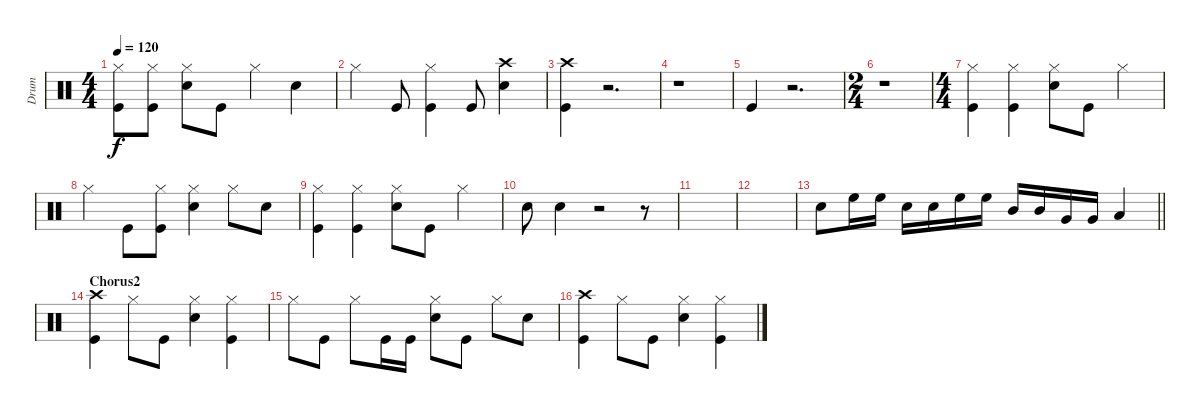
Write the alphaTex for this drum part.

\track ("Drum" "Drum") {instrument percussion}
\staff {score}
\articulation defaults
\ts (4 4)
\tempo 120
\clef neutral
\ks c
("Hi-Hat (closed)" "Kick (hit)").8{dy f} ("Hi-Hat (closed)" "Kick (hit)").8 ("Hi-Hat (closed)" "Snare (hit) 2").8 "Kick (hit)".8 "Hi-Hat (closed)".4 "Snare (hit) 2".4 |
"Hi-Hat (closed)".4 "Kick (hit)".8 ("Hi-Hat (closed)" "Kick (hit)").4 "Kick (hit)".8 ("Crash high (hit)" "Snare (hit) 2").4 |
("Crash high (hit)" "Kick (hit)").4 r.2{d} |
r.1 |
"Kick (hit)".4 r.2{d} |
\ts (2 4)
r.1 |
\ts (4 4)
("Hi-Hat (closed)" "Kick (hit)").4 ("Hi-Hat (closed)" "Kick (hit)").4 ("Hi-Hat (closed)" "Snare (hit) 2").8 "Kick (hit)".8 "Hi-Hat (closed)".4 |
"Hi-Hat (closed)".4 "Kick (hit)".8 ("Hi-Hat (closed)" "Kick (hit)").8 ("Hi-Hat (closed)" "Snare (hit) 2").4 "Hi-Hat (closed)".8 "Snare (hit) 2".8 |
("Hi-Hat (closed)" "Kick (hit)").4 ("Hi-Hat (closed)" "Kick (hit)").4 ("Hi-Hat (closed)" "Snare (hit) 2").8 "Kick (hit)".8 "Hi-Hat (closed)".4 |
"Snare (hit) 2".8 "Snare (hit) 2".4 r.2 r.8 |
|
|
\barLineRight lightlight "Snare (hit) 2".8 "High Floor Tom (hit)".16 "High Floor Tom (hit)".16 "Snare (hit) 2".16 "Snare (hit) 2".16 "High Floor Tom (hit)".16 "High Floor Tom (hit)".16 "Mid Tom (hit)".16 "Mid Tom (hit)".16 "Very Low Tom (hit)".16 "Very Low Tom (hit)".16 "Low Floor Tom (hit)".4
|
\section ("" "Chorus2")
("Crash high (hit)" "Kick (hit)").4 "Hi-Hat (closed)".8 "Kick (hit)".8 ("Hi-Hat (closed)" "Snare (hit) 2").4 ("Hi-Hat (closed)" "Kick (hit)").4 |
"Hi-Hat (closed)".8 "Kick (hit)".8 "Hi-Hat (closed)".8 "Kick (hit)".16 "Kick (hit)".16 ("Hi-Hat (closed)" "Snare (hit) 2").8 "Kick (hit)".8 "Hi-Hat (closed)".8 "Snare (hit) 2".8 |
("Crash high (hit)" "Kick (hit)").4 "Hi-Hat (closed)".8 "Kick (hit)".8 ("Hi-Hat (closed)" "Snare (hit) 2").4 ("Hi-Hat (closed)" "Kick (hit)").4
